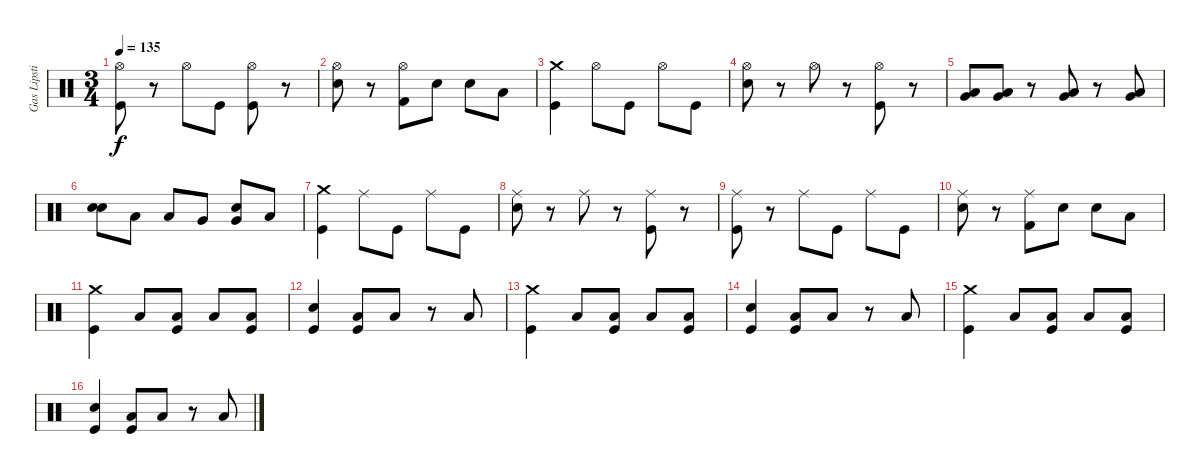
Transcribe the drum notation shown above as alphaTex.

\track ("Gas Lipstick" "Gas Lipsti") {instrument percussion}
\staff {score}
\articulation defaults
\ts (3 4)
\tempo 135
\clef neutral
\ks c
("Hi-Hat (open)" "Kick (hit)").8{dy f} r.8 "Hi-Hat (open)".8 "Kick (hit)".8 ("Hi-Hat (open)" "Kick (hit)").8 r.8 |
("Hi-Hat (open)" "Snare (hit) 2").8 r.8 ("Hi-Hat (open)" "Kick (hit) 2").8 "Snare (hit) 2".8 "Snare (hit) 2".8 "Low Tom (hit)".8 |
("Crash medium (hit)" "Kick (hit)").4 "Hi-Hat (open)".8 "Kick (hit)".8 "Hi-Hat (open)".8 "Kick (hit)".8 |
("Hi-Hat (open)" "Snare (hit) 2").8 r.8 "Hi-Hat (open)".8 r.8 ("Hi-Hat (open)" "Kick (hit)").8 r.8 |
("Low Tom (hit)" "Very Low Tom (hit)").8 ("Low Tom (hit)" "Very Low Tom (hit)").8 r.8 ("Low Tom (hit)" "Very Low Tom (hit)").8 r.8 ("Low Tom (hit)" "Very Low Tom (hit)").8 |
("Snare (hit) 2" "Snare (hit) 2").8{bd 60} "Low Tom (hit)".8 "Low Tom (hit)".8 "Very Low Tom (hit)".8 ("Very Low Tom (hit)" "Snare (hit) 2").8{bd 60} "Low Tom (hit)".8 |
("Crash medium (hit)" "Kick (hit)").4 "Ride (middle)".8 "Kick (hit)".8 "Ride (middle)".8 "Kick (hit)".8 |
("Ride (middle)" "Snare (hit) 2").8 r.8 "Ride (middle)".8 r.8 ("Ride (middle)" "Kick (hit)").8 r.8 |
("Ride (middle)" "Kick (hit)").8 r.8 "Ride (middle)".8 "Kick (hit)".8 "Ride (middle)".8 "Kick (hit)".8 |
("Ride (middle)" "Snare (hit) 2").8 r.8 ("Ride (middle)" "Kick (hit) 2").8 "Snare (hit) 2".8 "Snare (hit) 2".8 "Low Tom (hit)".8 |
("Crash medium (hit)" "Kick (hit)").4 "Low Tom (hit)".8 ("Low Tom (hit)" "Kick (hit)").8 "Low Tom (hit)".8 ("Low Tom (hit)" "Kick (hit)").8 |
("Snare (hit) 2" "Kick (hit)").4 ("Low Tom (hit)" "Kick (hit)").8 "Low Tom (hit)".8 r.8 "Low Tom (hit)".8 |
("Crash medium (hit)" "Kick (hit)").4 "Low Tom (hit)".8 ("Low Tom (hit)" "Kick (hit)").8 "Low Tom (hit)".8 ("Low Tom (hit)" "Kick (hit)").8 |
("Snare (hit) 2" "Kick (hit)").4 ("Low Tom (hit)" "Kick (hit)").8 "Low Tom (hit)".8 r.8 "Low Tom (hit)".8 |
("Crash medium (hit)" "Kick (hit)").4 "Low Tom (hit)".8 ("Low Tom (hit)" "Kick (hit)").8 "Low Tom (hit)".8 ("Low Tom (hit)" "Kick (hit)").8 |
("Snare (hit) 2" "Kick (hit)").4 ("Low Tom (hit)" "Kick (hit)").8 "Low Tom (hit)".8 r.8 "Low Tom (hit)".8
